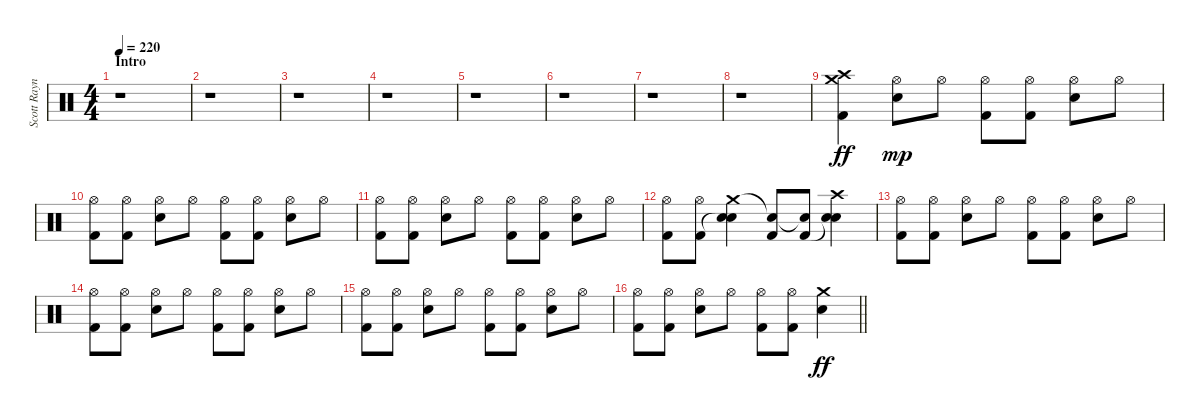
\track ("Scott Raynor - Drums" "Scott Rayn") {instrument percussion}
\staff {score}
\articulation defaults
\ts (4 4)
\section ("" "Intro")
\tempo 220
\clef neutral
\ks c
r.1{dy ff} |
r.1 |
r.1 |
r.1 |
r.1 |
r.1 |
r.1 |
r.1 |
("Crash high (hit)" "Crash medium (hit)" "Kick (hit) 2").4 ("Hi-Hat (open)" "Electric Snare (hit)").8{dy mp} "Hi-Hat (open)".8 ("Hi-Hat (open)" "Kick (hit) 2").8 ("Hi-Hat (open)" "Kick (hit) 2").8 ("Hi-Hat (open)" "Electric Snare (hit)").8 "Hi-Hat (open)".8 |
("Hi-Hat (open)" "Kick (hit) 2").8 ("Hi-Hat (open)" "Kick (hit) 2").8 ("Hi-Hat (open)" "Electric Snare (hit)").8 "Hi-Hat (open)".8 ("Hi-Hat (open)" "Kick (hit) 2").8 ("Hi-Hat (open)" "Kick (hit) 2").8 ("Hi-Hat (open)" "Electric Snare (hit)").8 "Hi-Hat (open)".8 |
("Hi-Hat (open)" "Kick (hit) 2").8 ("Hi-Hat (open)" "Kick (hit) 2").8 ("Hi-Hat (open)" "Electric Snare (hit)").8 "Hi-Hat (open)".8 ("Hi-Hat (open)" "Kick (hit) 2").8 ("Hi-Hat (open)" "Kick (hit) 2").8 ("Hi-Hat (open)" "Electric Snare (hit)").8 "Hi-Hat (open)".8 |
("Hi-Hat (open)" "Kick (hit) 2").8 ("Hi-Hat (open)" "Kick (hit) 2").8 ("Crash medium (hit)" "Snare (hit)"{t} "Electric Snare (hit)").4 ("Snare (hit)"{t} "Kick (hit) 2").8 ("Snare (hit)"{t} "Kick (hit) 2").8 ("Crash high (hit)" "Snare (hit)"{t} "Electric Snare (hit)").4 |
("Hi-Hat (open)" "Kick (hit) 2").8 ("Hi-Hat (open)" "Kick (hit) 2").8 ("Hi-Hat (open)" "Electric Snare (hit)").8 "Hi-Hat (open)".8 ("Hi-Hat (open)" "Kick (hit) 2").8 ("Hi-Hat (open)" "Kick (hit) 2").8 ("Hi-Hat (open)" "Electric Snare (hit)").8 "Hi-Hat (open)".8 |
("Hi-Hat (open)" "Kick (hit) 2").8 ("Hi-Hat (open)" "Kick (hit) 2").8 ("Hi-Hat (open)" "Electric Snare (hit)").8 "Hi-Hat (open)".8 ("Hi-Hat (open)" "Kick (hit) 2").8 ("Hi-Hat (open)" "Kick (hit) 2").8 ("Hi-Hat (open)" "Electric Snare (hit)").8 "Hi-Hat (open)".8 |
("Hi-Hat (open)" "Kick (hit) 2").8 ("Hi-Hat (open)" "Kick (hit) 2").8 ("Hi-Hat (open)" "Electric Snare (hit)").8 "Hi-Hat (open)".8 ("Hi-Hat (open)" "Kick (hit) 2").8 ("Hi-Hat (open)" "Kick (hit) 2").8 ("Hi-Hat (open)" "Electric Snare (hit)").8 "Hi-Hat (open)".8 |
\barLineRight lightlight
("Hi-Hat (open)" "Kick (hit) 2").8 ("Hi-Hat (open)" "Kick (hit) 2").8 ("Hi-Hat (open)" "Electric Snare (hit)").8 "Hi-Hat (open)".8 ("Hi-Hat (open)" "Kick (hit) 2").8 ("Hi-Hat (open)" "Kick (hit) 2").8 ("Crash medium (hit)" "Electric Snare (hit)").4{dy ff}
